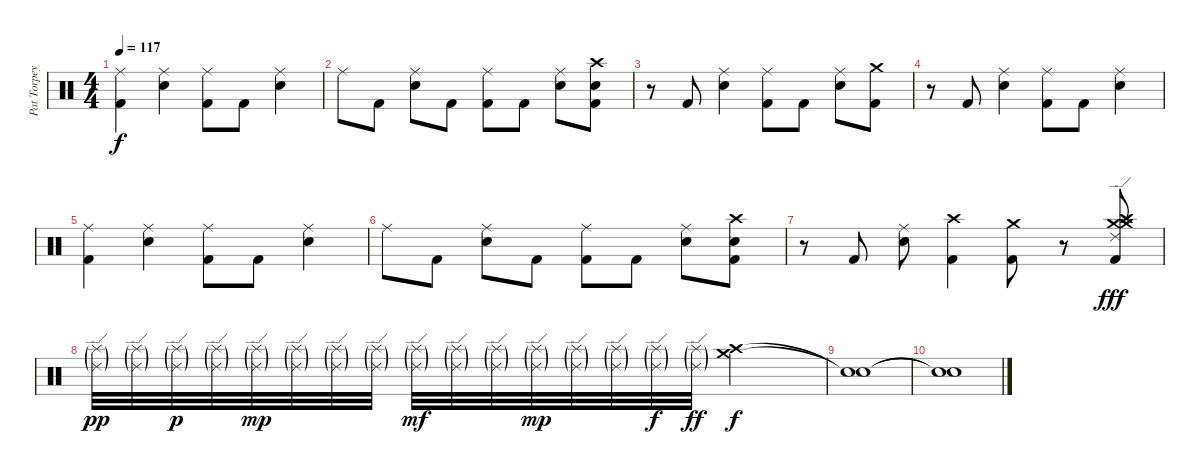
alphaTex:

\track ("Pat Torpey" "Pat Torpey") {instrument percussion}
\staff {score}
\articulation defaults
\ts (4 4)
\tempo 117
\clef neutral
\ks c
("Ride (middle)" "Kick (hit) 2").4{dy f} ("Ride (middle)" "Electric Snare (hit)").4 ("Ride (middle)" "Kick (hit) 2").8 "Kick (hit) 2".8 ("Ride (middle)" "Electric Snare (hit)").4 |
"Ride (middle)".8 "Kick (hit) 2".8 ("Ride (middle)" "Electric Snare (hit)").8 "Kick (hit) 2".8 ("Ride (middle)" "Kick (hit) 2").8 "Kick (hit) 2".8 ("Ride (middle)" "Electric Snare (hit)").8 ("Crash high (hit)" "Electric Snare (hit)" "Kick (hit) 2").8 |
r.8 "Kick (hit) 2".8 ("Ride (middle)" "Electric Snare (hit)").4 ("Ride (middle)" "Kick (hit) 2").8 "Kick (hit) 2".8 ("Ride (middle)" "Electric Snare (hit)").8 ("Crash medium (hit)" "Kick (hit) 2").8 |
r.8 "Kick (hit) 2".8 ("Ride (middle)" "Electric Snare (hit)").4 ("Ride (middle)" "Kick (hit) 2").8 "Kick (hit) 2".8 ("Ride (middle)" "Electric Snare (hit)").4 |
("Ride (middle)" "Kick (hit) 2").4 ("Ride (middle)" "Electric Snare (hit)").4 ("Ride (middle)" "Kick (hit) 2").8 "Kick (hit) 2".8 ("Ride (middle)" "Electric Snare (hit)").4 |
"Ride (middle)".8 "Kick (hit) 2".8 ("Ride (middle)" "Electric Snare (hit)").8 "Kick (hit) 2".8 ("Ride (middle)" "Kick (hit) 2").8 "Kick (hit) 2".8 ("Ride (middle)" "Electric Snare (hit)").8 ("Crash high (hit)" "Electric Snare (hit)" "Kick (hit) 2").8 |
r.8 "Kick (hit) 2".8 ("Ride (middle)" "Electric Snare (hit)").8 ("Crash high (hit)" "Kick (hit) 2").4 ("Crash medium (hit)" "Kick (hit) 2").8 r.8 ("Crash medium (hit)" "Crash high (hit)" "Ride (edge) 2" "Crash medium (hit)" "Kick (hit) 2").8{dy fff} |
("Splash (hit)"{g} "Ride (edge) 2"{g}).32{dy pp} ("Splash (hit)"{g} "Ride (edge) 2"{g}).32 ("Splash (hit)"{g} "Ride (edge) 2"{g}).32{dy p} ("Splash (hit)"{g} "Ride (edge) 2"{g}).32 ("Splash (hit)"{g} "Ride (edge) 2"{g}).32{dy mp} ("Splash (hit)"{g} "Ride (edge) 2"{g}).32 ("Splash (hit)"{g} "Ride (edge) 2"{g}).32 ("Splash (hit)"{g} "Ride (edge) 2"{g}).32 ("Splash (hit)"{g} "Ride (edge) 2"{g}).32{dy mf} ("Splash (hit)"{g} "Ride (edge) 2"{g}).32 ("Splash (hit)"{g} "Ride (edge) 2"{g}).32 ("Splash (hit)"{g} "Ride (edge) 2"{g}).32{dy mp} ("Splash (hit)"{g} "Ride (edge) 2"{g}).32 ("Splash (hit)"{g} "Ride (edge) 2"{g}).32 ("Splash (hit)"{g} "Ride (edge) 2"{g}).32{dy f} ("Splash (hit)"{g} "Ride (edge) 2"{g}).32{dy ff} ("Crash medium (hit)" "Crash high (hit)").2{dy f} |
("Snare (hit)"{t} "Snare (hit)"{t}).1 |
("Snare (hit)"{t} "Snare (hit)"{t}).1
